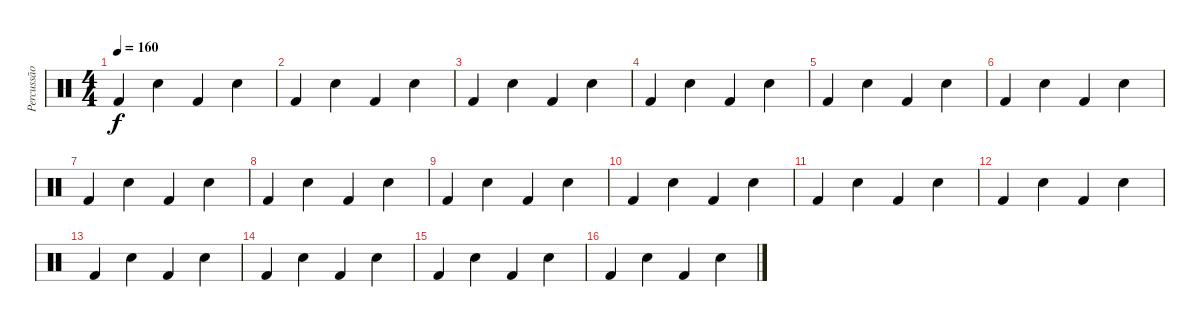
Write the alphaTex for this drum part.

\track ("Percussão" "Percussão") {instrument percussion}
\staff {score}
\articulation defaults
\ts (4 4)
\tempo 160
\clef neutral
\ks c "Kick (hit) 2".4{dy f} "Snare (hit) 2".4 "Kick (hit) 2".4 "Snare (hit) 2".4
|
"Kick (hit) 2".4 "Snare (hit) 2".4 "Kick (hit) 2".4 "Snare (hit) 2".4 |
"Kick (hit) 2".4 "Snare (hit) 2".4 "Kick (hit) 2".4 "Snare (hit) 2".4 |
"Kick (hit) 2".4 "Snare (hit) 2".4 "Kick (hit) 2".4 "Snare (hit) 2".4 |
"Kick (hit) 2".4 "Snare (hit) 2".4 "Kick (hit) 2".4 "Snare (hit) 2".4 |
"Kick (hit) 2".4 "Snare (hit) 2".4 "Kick (hit) 2".4 "Snare (hit) 2".4 |
"Kick (hit) 2".4 "Snare (hit) 2".4 "Kick (hit) 2".4 "Snare (hit) 2".4 |
"Kick (hit) 2".4 "Snare (hit) 2".4 "Kick (hit) 2".4 "Snare (hit) 2".4 |
"Kick (hit) 2".4 "Snare (hit) 2".4 "Kick (hit) 2".4 "Snare (hit) 2".4 |
"Kick (hit) 2".4 "Snare (hit) 2".4 "Kick (hit) 2".4 "Snare (hit) 2".4 |
"Kick (hit) 2".4 "Snare (hit) 2".4 "Kick (hit) 2".4 "Snare (hit) 2".4 |
"Kick (hit) 2".4 "Snare (hit) 2".4 "Kick (hit) 2".4 "Snare (hit) 2".4 |
"Kick (hit) 2".4 "Snare (hit) 2".4 "Kick (hit) 2".4 "Snare (hit) 2".4 |
"Kick (hit) 2".4 "Snare (hit) 2".4 "Kick (hit) 2".4 "Snare (hit) 2".4 |
"Kick (hit) 2".4 "Snare (hit) 2".4 "Kick (hit) 2".4 "Snare (hit) 2".4 |
"Kick (hit) 2".4 "Snare (hit) 2".4 "Kick (hit) 2".4 "Snare (hit) 2".4
